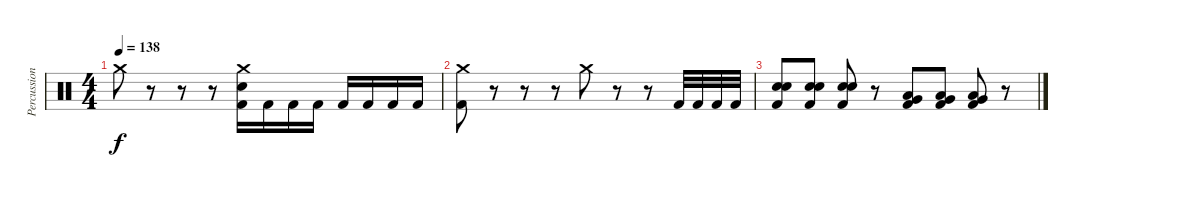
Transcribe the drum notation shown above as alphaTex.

\track ("Percussion" "Percussion") {instrument percussion}
\staff {score}
\articulation defaults
\ts (4 4)
\tempo 138
\clef neutral
\ks c "Crash medium (hit)".8{dy f}
r.8 r.8 r.8 ("Crash medium (hit)" "Electric Snare (hit)" "Kick (hit) 2").16 "Kick (hit) 2".16 "Kick (hit) 2".16 "Kick (hit) 2".16 "Kick (hit) 2".16 "Kick (hit) 2".16 "Kick (hit) 2".16 "Kick (hit) 2".16 |
("Crash medium (hit)" "Kick (hit) 2").8 r.8 r.8 r.8 "Crash medium (hit)".8 r.8 r.8 "Kick (hit) 2".32 "Kick (hit) 2".32 "Kick (hit) 2".32 "Kick (hit) 2".32 |
("Electric Snare (hit)" "Electric Snare (hit)" "Kick (hit) 2").8{bd 60} ("Electric Snare (hit)" "Electric Snare (hit)" "Kick (hit) 2").8{bd 60} ("Electric Snare (hit)" "Electric Snare (hit)" "Kick (hit) 2").8{bd 60} r.8 ("Very Low Tom (hit)" "Low Tom (hit)" "Kick (hit) 2").8{bd 60} ("Very Low Tom (hit)" "Low Tom (hit)" "Kick (hit) 2").8{bd 60} ("Very Low Tom (hit)" "Low Tom (hit)" "Kick (hit) 2").8{bd 60} r.8
